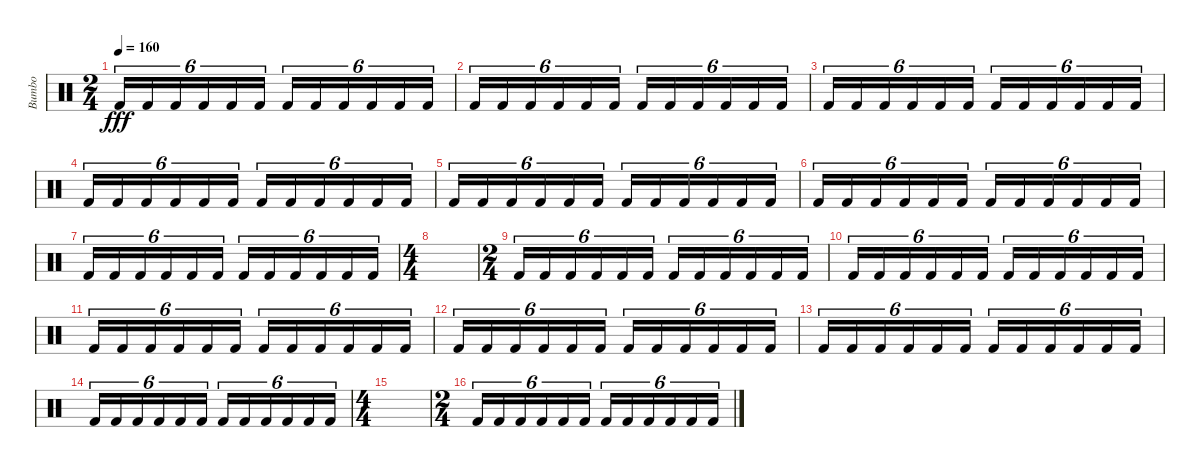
\track ("Bumbo" "Bumbo") {instrument percussion}
\staff {score}
\articulation defaults
\ts (2 4)
\tempo 160
\clef neutral
\ks c "Kick (hit) 2".16{tu (6 4) dy fff} "Kick (hit) 2".16{tu (6 4)} "Kick (hit) 2".16{tu (6 4)} "Kick (hit) 2".16{tu (6 4)} "Kick (hit) 2".16{tu (6 4)} "Kick (hit) 2".16{tu (6 4)} "Kick (hit) 2".16{tu (6 4)} "Kick (hit) 2".16{tu (6 4)} "Kick (hit) 2".16{tu (6 4)} "Kick (hit) 2".16{tu (6 4)} "Kick (hit) 2".16{tu (6 4)} "Kick (hit) 2".16{tu (6 4)}
|
"Kick (hit) 2".16{tu (6 4)} "Kick (hit) 2".16{tu (6 4)} "Kick (hit) 2".16{tu (6 4)} "Kick (hit) 2".16{tu (6 4)} "Kick (hit) 2".16{tu (6 4)} "Kick (hit) 2".16{tu (6 4)} "Kick (hit) 2".16{tu (6 4)} "Kick (hit) 2".16{tu (6 4)} "Kick (hit) 2".16{tu (6 4)} "Kick (hit) 2".16{tu (6 4)} "Kick (hit) 2".16{tu (6 4)} "Kick (hit) 2".16{tu (6 4)} |
"Kick (hit) 2".16{tu (6 4)} "Kick (hit) 2".16{tu (6 4)} "Kick (hit) 2".16{tu (6 4)} "Kick (hit) 2".16{tu (6 4)} "Kick (hit) 2".16{tu (6 4)} "Kick (hit) 2".16{tu (6 4)} "Kick (hit) 2".16{tu (6 4)} "Kick (hit) 2".16{tu (6 4)} "Kick (hit) 2".16{tu (6 4)} "Kick (hit) 2".16{tu (6 4)} "Kick (hit) 2".16{tu (6 4)} "Kick (hit) 2".16{tu (6 4)} |
"Kick (hit) 2".16{tu (6 4)} "Kick (hit) 2".16{tu (6 4)} "Kick (hit) 2".16{tu (6 4)} "Kick (hit) 2".16{tu (6 4)} "Kick (hit) 2".16{tu (6 4)} "Kick (hit) 2".16{tu (6 4)} "Kick (hit) 2".16{tu (6 4)} "Kick (hit) 2".16{tu (6 4)} "Kick (hit) 2".16{tu (6 4)} "Kick (hit) 2".16{tu (6 4)} "Kick (hit) 2".16{tu (6 4)} "Kick (hit) 2".16{tu (6 4)} |
"Kick (hit) 2".16{tu (6 4)} "Kick (hit) 2".16{tu (6 4)} "Kick (hit) 2".16{tu (6 4)} "Kick (hit) 2".16{tu (6 4)} "Kick (hit) 2".16{tu (6 4)} "Kick (hit) 2".16{tu (6 4)} "Kick (hit) 2".16{tu (6 4)} "Kick (hit) 2".16{tu (6 4)} "Kick (hit) 2".16{tu (6 4)} "Kick (hit) 2".16{tu (6 4)} "Kick (hit) 2".16{tu (6 4)} "Kick (hit) 2".16{tu (6 4)} |
"Kick (hit) 2".16{tu (6 4)} "Kick (hit) 2".16{tu (6 4)} "Kick (hit) 2".16{tu (6 4)} "Kick (hit) 2".16{tu (6 4)} "Kick (hit) 2".16{tu (6 4)} "Kick (hit) 2".16{tu (6 4)} "Kick (hit) 2".16{tu (6 4)} "Kick (hit) 2".16{tu (6 4)} "Kick (hit) 2".16{tu (6 4)} "Kick (hit) 2".16{tu (6 4)} "Kick (hit) 2".16{tu (6 4)} "Kick (hit) 2".16{tu (6 4)} |
"Kick (hit) 2".16{tu (6 4)} "Kick (hit) 2".16{tu (6 4)} "Kick (hit) 2".16{tu (6 4)} "Kick (hit) 2".16{tu (6 4)} "Kick (hit) 2".16{tu (6 4)} "Kick (hit) 2".16{tu (6 4)} "Kick (hit) 2".16{tu (6 4)} "Kick (hit) 2".16{tu (6 4)} "Kick (hit) 2".16{tu (6 4)} "Kick (hit) 2".16{tu (6 4)} "Kick (hit) 2".16{tu (6 4)} "Kick (hit) 2".16{tu (6 4)} |
\ts (4 4)
|
\ts (2 4)
"Kick (hit) 2".16{tu (6 4)} "Kick (hit) 2".16{tu (6 4)} "Kick (hit) 2".16{tu (6 4)} "Kick (hit) 2".16{tu (6 4)} "Kick (hit) 2".16{tu (6 4)} "Kick (hit) 2".16{tu (6 4)} "Kick (hit) 2".16{tu (6 4)} "Kick (hit) 2".16{tu (6 4)} "Kick (hit) 2".16{tu (6 4)} "Kick (hit) 2".16{tu (6 4)} "Kick (hit) 2".16{tu (6 4)} "Kick (hit) 2".16{tu (6 4)} |
"Kick (hit) 2".16{tu (6 4)} "Kick (hit) 2".16{tu (6 4)} "Kick (hit) 2".16{tu (6 4)} "Kick (hit) 2".16{tu (6 4)} "Kick (hit) 2".16{tu (6 4)} "Kick (hit) 2".16{tu (6 4)} "Kick (hit) 2".16{tu (6 4)} "Kick (hit) 2".16{tu (6 4)} "Kick (hit) 2".16{tu (6 4)} "Kick (hit) 2".16{tu (6 4)} "Kick (hit) 2".16{tu (6 4)} "Kick (hit) 2".16{tu (6 4)} |
"Kick (hit) 2".16{tu (6 4)} "Kick (hit) 2".16{tu (6 4)} "Kick (hit) 2".16{tu (6 4)} "Kick (hit) 2".16{tu (6 4)} "Kick (hit) 2".16{tu (6 4)} "Kick (hit) 2".16{tu (6 4)} "Kick (hit) 2".16{tu (6 4)} "Kick (hit) 2".16{tu (6 4)} "Kick (hit) 2".16{tu (6 4)} "Kick (hit) 2".16{tu (6 4)} "Kick (hit) 2".16{tu (6 4)} "Kick (hit) 2".16{tu (6 4)} |
"Kick (hit) 2".16{tu (6 4)} "Kick (hit) 2".16{tu (6 4)} "Kick (hit) 2".16{tu (6 4)} "Kick (hit) 2".16{tu (6 4)} "Kick (hit) 2".16{tu (6 4)} "Kick (hit) 2".16{tu (6 4)} "Kick (hit) 2".16{tu (6 4)} "Kick (hit) 2".16{tu (6 4)} "Kick (hit) 2".16{tu (6 4)} "Kick (hit) 2".16{tu (6 4)} "Kick (hit) 2".16{tu (6 4)} "Kick (hit) 2".16{tu (6 4)} |
"Kick (hit) 2".16{tu (6 4)} "Kick (hit) 2".16{tu (6 4)} "Kick (hit) 2".16{tu (6 4)} "Kick (hit) 2".16{tu (6 4)} "Kick (hit) 2".16{tu (6 4)} "Kick (hit) 2".16{tu (6 4)} "Kick (hit) 2".16{tu (6 4)} "Kick (hit) 2".16{tu (6 4)} "Kick (hit) 2".16{tu (6 4)} "Kick (hit) 2".16{tu (6 4)} "Kick (hit) 2".16{tu (6 4)} "Kick (hit) 2".16{tu (6 4)} |
"Kick (hit) 2".16{tu (6 4)} "Kick (hit) 2".16{tu (6 4)} "Kick (hit) 2".16{tu (6 4)} "Kick (hit) 2".16{tu (6 4)} "Kick (hit) 2".16{tu (6 4)} "Kick (hit) 2".16{tu (6 4)} "Kick (hit) 2".16{tu (6 4)} "Kick (hit) 2".16{tu (6 4)} "Kick (hit) 2".16{tu (6 4)} "Kick (hit) 2".16{tu (6 4)} "Kick (hit) 2".16{tu (6 4)} "Kick (hit) 2".16{tu (6 4)} |
\ts (4 4)
|
\ts (2 4)
"Kick (hit) 2".16{tu (6 4)} "Kick (hit) 2".16{tu (6 4)} "Kick (hit) 2".16{tu (6 4)} "Kick (hit) 2".16{tu (6 4)} "Kick (hit) 2".16{tu (6 4)} "Kick (hit) 2".16{tu (6 4)} "Kick (hit) 2".16{tu (6 4)} "Kick (hit) 2".16{tu (6 4)} "Kick (hit) 2".16{tu (6 4)} "Kick (hit) 2".16{tu (6 4)} "Kick (hit) 2".16{tu (6 4)} "Kick (hit) 2".16{tu (6 4)}
